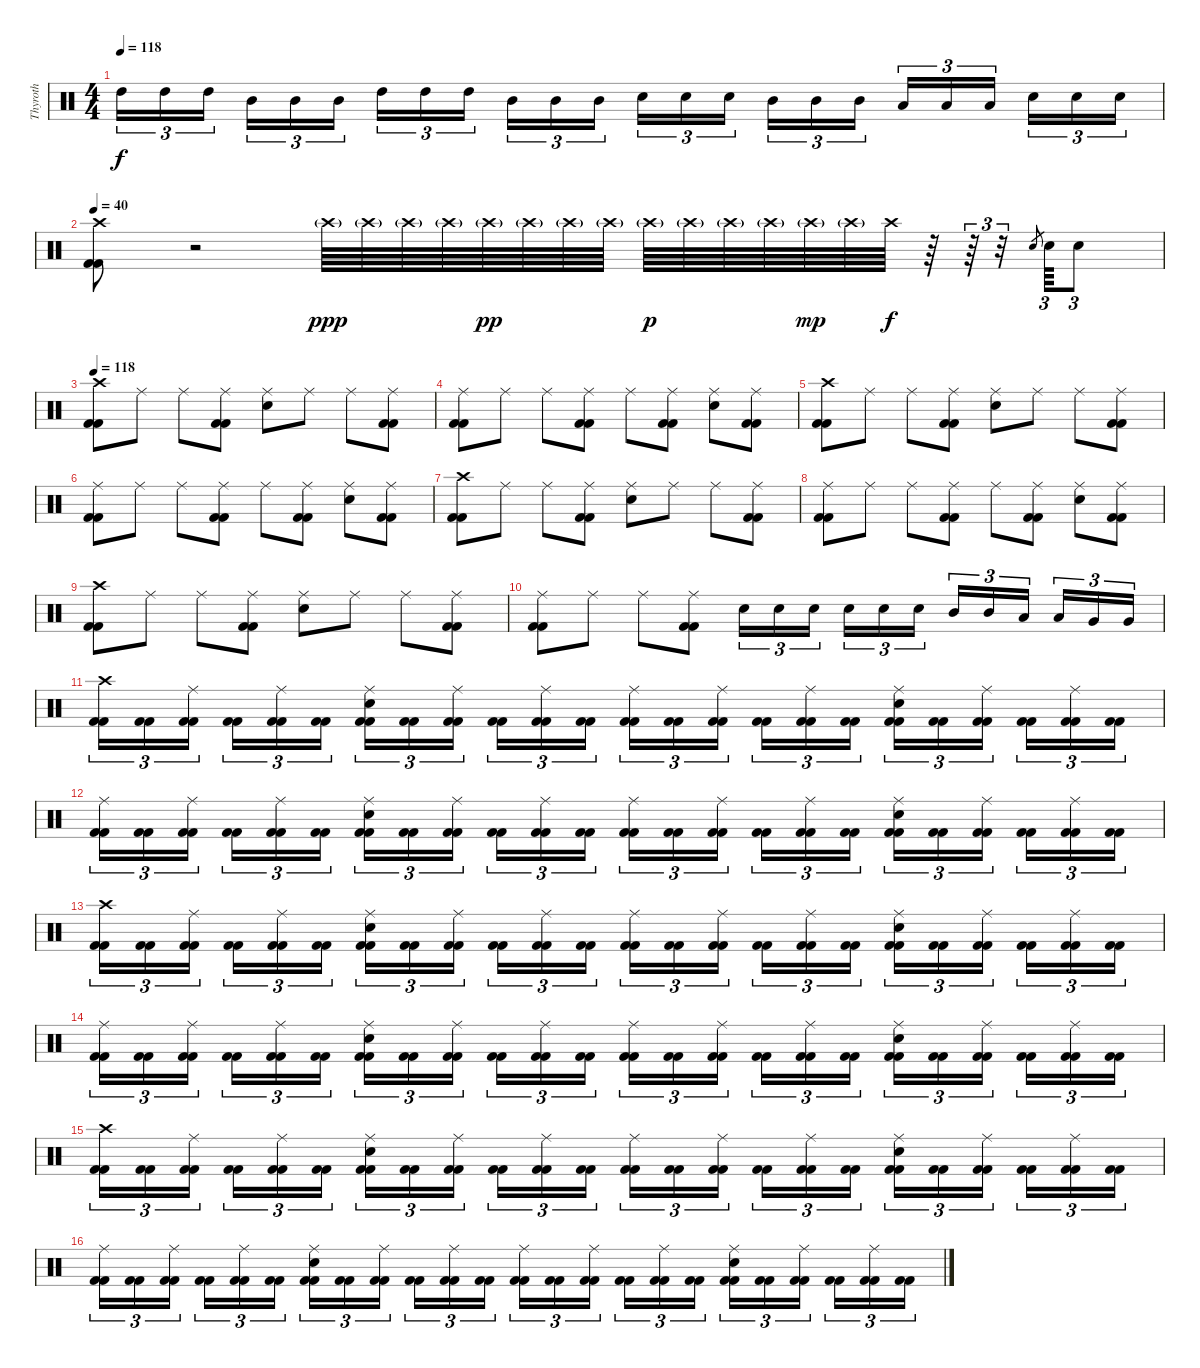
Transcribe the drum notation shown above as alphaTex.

\track ("Thyroth" "Thyroth") {instrument percussion}
\staff {score}
\articulation defaults
\ts (4 4)
\tempo 118
\clef neutral
\ks c "High Tom (hit)".16{tu (3 2) dy f} "High Tom (hit)".16{tu (3 2)} "High Tom (hit)".16{tu (3 2)} "Mid Tom (hit)".16{tu (3 2)} "Mid Tom (hit)".16{tu (3 2)} "Mid Tom (hit)".16{tu (3 2)} "High Tom (hit)".16{tu (3 2)} "High Tom (hit)".16{tu (3 2)} "High Tom (hit)".16{tu (3 2)} "Mid Tom (hit)".16{tu (3 2)} "Mid Tom (hit)".16{tu (3 2)} "Mid Tom (hit)".16{tu (3 2)} "Snare (hit) 2".16{tu (3 2)} "Snare (hit) 2".16{tu (3 2)} "Snare (hit) 2".16{tu (3 2)} "Mid Tom (hit)".16{tu (3 2)} "Mid Tom (hit)".16{tu (3 2)} "Mid Tom (hit)".16{tu (3 2)} "Low Tom (hit)".16{tu (3 2)} "Low Tom (hit)".16{tu (3 2)} "Low Tom (hit)".16{tu (3 2)} "Snare (hit) 2".16{tu (3 2)} "Snare (hit) 2".16{tu (3 2)} "Snare (hit) 2".16{tu (3 2)}
|
\tempo 40
("Kick (hit) 2" "Kick (hit) 2" "Crash high (hit)").8 r.2 "Crash high (hit)"{g}.64{dy ppp} "Crash high (hit)"{g}.64 "Crash high (hit)"{g}.64 "Crash high (hit)"{g}.64 "Crash high (hit)"{g}.64{dy pp} "Crash high (hit)"{g}.64 "Crash high (hit)"{g}.64 "Crash high (hit)"{g}.64 "Crash high (hit)"{g}.64{dy p} "Crash high (hit)"{g}.64 "Crash high (hit)"{g}.64 "Crash high (hit)"{g}.64 "Crash high (hit)"{g}.64{dy mp} "Crash high (hit)"{g}.64 "Crash high (hit)".64{dy f} r.64 r.64{tu (3 2)} r.32{tu (3 2)} "Snare (hit) 2".8{gr} "Snare (hit) 2".64{tu (3 2)} "Snare (hit) 2".8{tu (3 2)} |
\tempo 118
("Kick (hit) 2" "Kick (hit) 2" "Crash high (hit)").8 "Ride (middle)".8 "Ride (middle)".8 ("Kick (hit) 2" "Kick (hit) 2" "Ride (middle)").8 ("Snare (hit) 2" "Ride (middle)").8 "Ride (middle)".8 "Ride (middle)".8 ("Kick (hit) 2" "Kick (hit) 2" "Ride (middle)").8 |
("Kick (hit) 2" "Kick (hit) 2" "Ride (middle)").8 "Ride (middle)".8 "Ride (middle)".8 ("Kick (hit) 2" "Kick (hit) 2" "Ride (middle)").8 "Ride (middle)".8 ("Kick (hit) 2" "Kick (hit) 2" "Ride (middle)").8 ("Snare (hit) 2" "Ride (middle)").8 ("Kick (hit) 2" "Kick (hit) 2" "Ride (middle)").8 |
("Kick (hit) 2" "Kick (hit) 2" "Crash high (hit)").8 "Ride (middle)".8 "Ride (middle)".8 ("Kick (hit) 2" "Kick (hit) 2" "Ride (middle)").8 ("Snare (hit) 2" "Ride (middle)").8 "Ride (middle)".8 "Ride (middle)".8 ("Kick (hit) 2" "Kick (hit) 2" "Ride (middle)").8 |
("Kick (hit) 2" "Kick (hit) 2" "Ride (middle)").8 "Ride (middle)".8 "Ride (middle)".8 ("Kick (hit) 2" "Kick (hit) 2" "Ride (middle)").8 "Ride (middle)".8 ("Kick (hit) 2" "Kick (hit) 2" "Ride (middle)").8 ("Snare (hit) 2" "Ride (middle)").8 ("Kick (hit) 2" "Kick (hit) 2" "Ride (middle)").8 |
("Kick (hit) 2" "Kick (hit) 2" "Crash high (hit)").8 "Ride (middle)".8 "Ride (middle)".8 ("Kick (hit) 2" "Kick (hit) 2" "Ride (middle)").8 ("Snare (hit) 2" "Ride (middle)").8 "Ride (middle)".8 "Ride (middle)".8 ("Kick (hit) 2" "Kick (hit) 2" "Ride (middle)").8 |
("Kick (hit) 2" "Kick (hit) 2" "Ride (middle)").8 "Ride (middle)".8 "Ride (middle)".8 ("Kick (hit) 2" "Kick (hit) 2" "Ride (middle)").8 "Ride (middle)".8 ("Kick (hit) 2" "Kick (hit) 2" "Ride (middle)").8 ("Snare (hit) 2" "Ride (middle)").8 ("Kick (hit) 2" "Kick (hit) 2" "Ride (middle)").8 |
("Kick (hit) 2" "Kick (hit) 2" "Crash high (hit)").8 "Ride (middle)".8 "Ride (middle)".8 ("Kick (hit) 2" "Kick (hit) 2" "Ride (middle)").8 ("Snare (hit) 2" "Ride (middle)").8 "Ride (middle)".8 "Ride (middle)".8 ("Kick (hit) 2" "Kick (hit) 2" "Ride (middle)").8 |
("Kick (hit) 2" "Kick (hit) 2" "Ride (middle)").8 "Ride (middle)".8 "Ride (middle)".8 ("Kick (hit) 2" "Kick (hit) 2" "Ride (middle)").8 "Snare (hit) 2".16{tu (3 2)} "Snare (hit) 2".16{tu (3 2)} "Snare (hit) 2".16{tu (3 2)} "Snare (hit) 2".16{tu (3 2)} "Snare (hit) 2".16{tu (3 2)} "Snare (hit) 2".16{tu (3 2)} "Mid Tom (hit)".16{tu (3 2)} "Mid Tom (hit)".16{tu (3 2)} "Low Tom (hit)".16{tu (3 2)} "Low Tom (hit)".16{tu (3 2)} "Very Low Tom (hit)".16{tu (3 2)} "Very Low Tom (hit)".16{tu (3 2)} |
("Kick (hit) 2" "Kick (hit) 2" "Crash high (hit)").16{tu (3 2)} ("Kick (hit) 2" "Kick (hit) 2").16{tu (3 2)} ("Kick (hit) 2" "Kick (hit) 2" "Ride (middle)").16{tu (3 2)} ("Kick (hit) 2" "Kick (hit) 2").16{tu (3 2)} ("Kick (hit) 2" "Kick (hit) 2" "Ride (middle)").16{tu (3 2)} ("Kick (hit) 2" "Kick (hit) 2").16{tu (3 2)} ("Kick (hit) 2" "Kick (hit) 2" "Snare (hit) 2" "Ride (middle)").16{tu (3 2)} ("Kick (hit) 2" "Kick (hit) 2").16{tu (3 2)} ("Kick (hit) 2" "Kick (hit) 2" "Ride (middle)").16{tu (3 2)} ("Kick (hit) 2" "Kick (hit) 2").16{tu (3 2)} ("Kick (hit) 2" "Kick (hit) 2" "Ride (middle)").16{tu (3 2)} ("Kick (hit) 2" "Kick (hit) 2").16{tu (3 2)} ("Kick (hit) 2" "Kick (hit) 2" "Ride (middle)").16{tu (3 2)} ("Kick (hit) 2" "Kick (hit) 2").16{tu (3 2)} ("Kick (hit) 2" "Kick (hit) 2" "Ride (middle)").16{tu (3 2)} ("Kick (hit) 2" "Kick (hit) 2").16{tu (3 2)} ("Kick (hit) 2" "Kick (hit) 2" "Ride (middle)").16{tu (3 2)} ("Kick (hit) 2" "Kick (hit) 2").16{tu (3 2)} ("Kick (hit) 2" "Kick (hit) 2" "Snare (hit) 2" "Ride (middle)").16{tu (3 2)} ("Kick (hit) 2" "Kick (hit) 2").16{tu (3 2)} ("Kick (hit) 2" "Kick (hit) 2" "Ride (middle)").16{tu (3 2)} ("Kick (hit) 2" "Kick (hit) 2").16{tu (3 2)} ("Kick (hit) 2" "Kick (hit) 2" "Ride (middle)").16{tu (3 2)} ("Kick (hit) 2" "Kick (hit) 2").16{tu (3 2)} |
("Kick (hit) 2" "Kick (hit) 2" "Ride (middle)").16{tu (3 2)} ("Kick (hit) 2" "Kick (hit) 2").16{tu (3 2)} ("Kick (hit) 2" "Kick (hit) 2" "Ride (middle)").16{tu (3 2)} ("Kick (hit) 2" "Kick (hit) 2").16{tu (3 2)} ("Kick (hit) 2" "Kick (hit) 2" "Ride (middle)").16{tu (3 2)} ("Kick (hit) 2" "Kick (hit) 2").16{tu (3 2)} ("Kick (hit) 2" "Kick (hit) 2" "Snare (hit) 2" "Ride (middle)").16{tu (3 2)} ("Kick (hit) 2" "Kick (hit) 2").16{tu (3 2)} ("Kick (hit) 2" "Kick (hit) 2" "Ride (middle)").16{tu (3 2)} ("Kick (hit) 2" "Kick (hit) 2").16{tu (3 2)} ("Kick (hit) 2" "Kick (hit) 2" "Ride (middle)").16{tu (3 2)} ("Kick (hit) 2" "Kick (hit) 2").16{tu (3 2)} ("Kick (hit) 2" "Kick (hit) 2" "Ride (middle)").16{tu (3 2)} ("Kick (hit) 2" "Kick (hit) 2").16{tu (3 2)} ("Kick (hit) 2" "Kick (hit) 2" "Ride (middle)").16{tu (3 2)} ("Kick (hit) 2" "Kick (hit) 2").16{tu (3 2)} ("Kick (hit) 2" "Kick (hit) 2" "Ride (middle)").16{tu (3 2)} ("Kick (hit) 2" "Kick (hit) 2").16{tu (3 2)} ("Kick (hit) 2" "Kick (hit) 2" "Snare (hit) 2" "Ride (middle)").16{tu (3 2)} ("Kick (hit) 2" "Kick (hit) 2").16{tu (3 2)} ("Kick (hit) 2" "Kick (hit) 2" "Ride (middle)").16{tu (3 2)} ("Kick (hit) 2" "Kick (hit) 2").16{tu (3 2)} ("Kick (hit) 2" "Kick (hit) 2" "Ride (middle)").16{tu (3 2)} ("Kick (hit) 2" "Kick (hit) 2").16{tu (3 2)} |
("Kick (hit) 2" "Kick (hit) 2" "Crash high (hit)").16{tu (3 2)} ("Kick (hit) 2" "Kick (hit) 2").16{tu (3 2)} ("Kick (hit) 2" "Kick (hit) 2" "Ride (middle)").16{tu (3 2)} ("Kick (hit) 2" "Kick (hit) 2").16{tu (3 2)} ("Kick (hit) 2" "Kick (hit) 2" "Ride (middle)").16{tu (3 2)} ("Kick (hit) 2" "Kick (hit) 2").16{tu (3 2)} ("Kick (hit) 2" "Kick (hit) 2" "Snare (hit) 2" "Ride (middle)").16{tu (3 2)} ("Kick (hit) 2" "Kick (hit) 2").16{tu (3 2)} ("Kick (hit) 2" "Kick (hit) 2" "Ride (middle)").16{tu (3 2)} ("Kick (hit) 2" "Kick (hit) 2").16{tu (3 2)} ("Kick (hit) 2" "Kick (hit) 2" "Ride (middle)").16{tu (3 2)} ("Kick (hit) 2" "Kick (hit) 2").16{tu (3 2)} ("Kick (hit) 2" "Kick (hit) 2" "Ride (middle)").16{tu (3 2)} ("Kick (hit) 2" "Kick (hit) 2").16{tu (3 2)} ("Kick (hit) 2" "Kick (hit) 2" "Ride (middle)").16{tu (3 2)} ("Kick (hit) 2" "Kick (hit) 2").16{tu (3 2)} ("Kick (hit) 2" "Kick (hit) 2" "Ride (middle)").16{tu (3 2)} ("Kick (hit) 2" "Kick (hit) 2").16{tu (3 2)} ("Kick (hit) 2" "Kick (hit) 2" "Snare (hit) 2" "Ride (middle)").16{tu (3 2)} ("Kick (hit) 2" "Kick (hit) 2").16{tu (3 2)} ("Kick (hit) 2" "Kick (hit) 2" "Ride (middle)").16{tu (3 2)} ("Kick (hit) 2" "Kick (hit) 2").16{tu (3 2)} ("Kick (hit) 2" "Kick (hit) 2" "Ride (middle)").16{tu (3 2)} ("Kick (hit) 2" "Kick (hit) 2").16{tu (3 2)} |
("Kick (hit) 2" "Kick (hit) 2" "Ride (middle)").16{tu (3 2)} ("Kick (hit) 2" "Kick (hit) 2").16{tu (3 2)} ("Kick (hit) 2" "Kick (hit) 2" "Ride (middle)").16{tu (3 2)} ("Kick (hit) 2" "Kick (hit) 2").16{tu (3 2)} ("Kick (hit) 2" "Kick (hit) 2" "Ride (middle)").16{tu (3 2)} ("Kick (hit) 2" "Kick (hit) 2").16{tu (3 2)} ("Kick (hit) 2" "Kick (hit) 2" "Snare (hit) 2" "Ride (middle)").16{tu (3 2)} ("Kick (hit) 2" "Kick (hit) 2").16{tu (3 2)} ("Kick (hit) 2" "Kick (hit) 2" "Ride (middle)").16{tu (3 2)} ("Kick (hit) 2" "Kick (hit) 2").16{tu (3 2)} ("Kick (hit) 2" "Kick (hit) 2" "Ride (middle)").16{tu (3 2)} ("Kick (hit) 2" "Kick (hit) 2").16{tu (3 2)} ("Kick (hit) 2" "Kick (hit) 2" "Ride (middle)").16{tu (3 2)} ("Kick (hit) 2" "Kick (hit) 2").16{tu (3 2)} ("Kick (hit) 2" "Kick (hit) 2" "Ride (middle)").16{tu (3 2)} ("Kick (hit) 2" "Kick (hit) 2").16{tu (3 2)} ("Kick (hit) 2" "Kick (hit) 2" "Ride (middle)").16{tu (3 2)} ("Kick (hit) 2" "Kick (hit) 2").16{tu (3 2)} ("Kick (hit) 2" "Kick (hit) 2" "Snare (hit) 2" "Ride (middle)").16{tu (3 2)} ("Kick (hit) 2" "Kick (hit) 2").16{tu (3 2)} ("Kick (hit) 2" "Kick (hit) 2" "Ride (middle)").16{tu (3 2)} ("Kick (hit) 2" "Kick (hit) 2").16{tu (3 2)} ("Kick (hit) 2" "Kick (hit) 2" "Ride (middle)").16{tu (3 2)} ("Kick (hit) 2" "Kick (hit) 2").16{tu (3 2)} |
("Kick (hit) 2" "Kick (hit) 2" "Crash high (hit)").16{tu (3 2)} ("Kick (hit) 2" "Kick (hit) 2").16{tu (3 2)} ("Kick (hit) 2" "Kick (hit) 2" "Ride (middle)").16{tu (3 2)} ("Kick (hit) 2" "Kick (hit) 2").16{tu (3 2)} ("Kick (hit) 2" "Kick (hit) 2" "Ride (middle)").16{tu (3 2)} ("Kick (hit) 2" "Kick (hit) 2").16{tu (3 2)} ("Kick (hit) 2" "Kick (hit) 2" "Snare (hit) 2" "Ride (middle)").16{tu (3 2)} ("Kick (hit) 2" "Kick (hit) 2").16{tu (3 2)} ("Kick (hit) 2" "Kick (hit) 2" "Ride (middle)").16{tu (3 2)} ("Kick (hit) 2" "Kick (hit) 2").16{tu (3 2)} ("Kick (hit) 2" "Kick (hit) 2" "Ride (middle)").16{tu (3 2)} ("Kick (hit) 2" "Kick (hit) 2").16{tu (3 2)} ("Kick (hit) 2" "Kick (hit) 2" "Ride (middle)").16{tu (3 2)} ("Kick (hit) 2" "Kick (hit) 2").16{tu (3 2)} ("Kick (hit) 2" "Kick (hit) 2" "Ride (middle)").16{tu (3 2)} ("Kick (hit) 2" "Kick (hit) 2").16{tu (3 2)} ("Kick (hit) 2" "Kick (hit) 2" "Ride (middle)").16{tu (3 2)} ("Kick (hit) 2" "Kick (hit) 2").16{tu (3 2)} ("Kick (hit) 2" "Kick (hit) 2" "Snare (hit) 2" "Ride (middle)").16{tu (3 2)} ("Kick (hit) 2" "Kick (hit) 2").16{tu (3 2)} ("Kick (hit) 2" "Kick (hit) 2" "Ride (middle)").16{tu (3 2)} ("Kick (hit) 2" "Kick (hit) 2").16{tu (3 2)} ("Kick (hit) 2" "Kick (hit) 2" "Ride (middle)").16{tu (3 2)} ("Kick (hit) 2" "Kick (hit) 2").16{tu (3 2)} |
("Kick (hit) 2" "Kick (hit) 2" "Ride (middle)").16{tu (3 2)} ("Kick (hit) 2" "Kick (hit) 2").16{tu (3 2)} ("Kick (hit) 2" "Kick (hit) 2" "Ride (middle)").16{tu (3 2)} ("Kick (hit) 2" "Kick (hit) 2").16{tu (3 2)} ("Kick (hit) 2" "Kick (hit) 2" "Ride (middle)").16{tu (3 2)} ("Kick (hit) 2" "Kick (hit) 2").16{tu (3 2)} ("Kick (hit) 2" "Kick (hit) 2" "Snare (hit) 2" "Ride (middle)").16{tu (3 2)} ("Kick (hit) 2" "Kick (hit) 2").16{tu (3 2)} ("Kick (hit) 2" "Kick (hit) 2" "Ride (middle)").16{tu (3 2)} ("Kick (hit) 2" "Kick (hit) 2").16{tu (3 2)} ("Kick (hit) 2" "Kick (hit) 2" "Ride (middle)").16{tu (3 2)} ("Kick (hit) 2" "Kick (hit) 2").16{tu (3 2)} ("Kick (hit) 2" "Kick (hit) 2" "Ride (middle)").16{tu (3 2)} ("Kick (hit) 2" "Kick (hit) 2").16{tu (3 2)} ("Kick (hit) 2" "Kick (hit) 2" "Ride (middle)").16{tu (3 2)} ("Kick (hit) 2" "Kick (hit) 2").16{tu (3 2)} ("Kick (hit) 2" "Kick (hit) 2" "Ride (middle)").16{tu (3 2)} ("Kick (hit) 2" "Kick (hit) 2").16{tu (3 2)} ("Kick (hit) 2" "Kick (hit) 2" "Snare (hit) 2" "Ride (middle)").16{tu (3 2)} ("Kick (hit) 2" "Kick (hit) 2").16{tu (3 2)} ("Kick (hit) 2" "Kick (hit) 2" "Ride (middle)").16{tu (3 2)} ("Kick (hit) 2" "Kick (hit) 2").16{tu (3 2)} ("Kick (hit) 2" "Kick (hit) 2" "Ride (middle)").16{tu (3 2)} ("Kick (hit) 2" "Kick (hit) 2").16{tu (3 2)}
